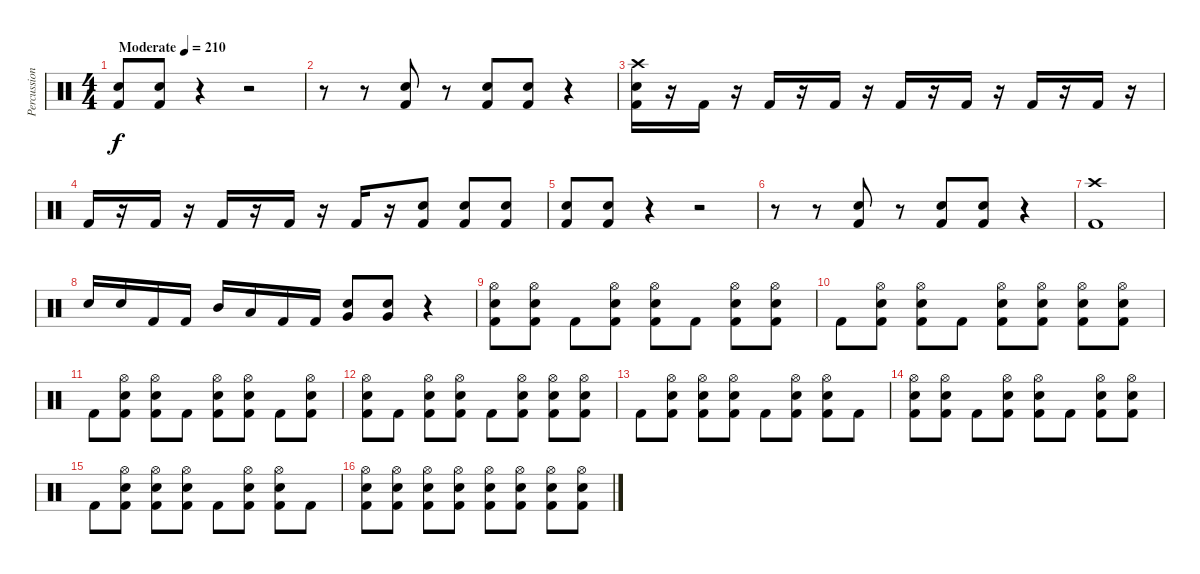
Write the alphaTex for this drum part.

\track ("Percussion" "Percussion") {instrument percussion}
\staff {score}
\articulation defaults
\ts (4 4)
\tempo (210 "Moderate")
\clef neutral
\ks c
("Electric Snare (hit)" "Kick (hit) 2").8{dy f} ("Electric Snare (hit)" "Kick (hit) 2").8 r.4 r.2 |
r.8 r.8 ("Electric Snare (hit)" "Kick (hit) 2").8 r.8 ("Electric Snare (hit)" "Kick (hit) 2").8 ("Electric Snare (hit)" "Kick (hit) 2").8 r.4 |
("Crash high (hit)" "Electric Snare (hit)" "Kick (hit) 2").16 r.16 "Kick (hit) 2".16 r.16 "Kick (hit) 2".16 r.16 "Kick (hit) 2".16 r.16 "Kick (hit) 2".16 r.16 "Kick (hit) 2".16 r.16 "Kick (hit) 2".16 r.16 "Kick (hit) 2".16 r.16 |
"Kick (hit) 2".16 r.16 "Kick (hit) 2".16 r.16 "Kick (hit) 2".16 r.16 "Kick (hit) 2".16 r.16 "Kick (hit) 2".16 r.16 ("Electric Snare (hit)" "Kick (hit) 2").8 ("Electric Snare (hit)" "Kick (hit) 2").8 ("Electric Snare (hit)" "Kick (hit) 2").8 |
("Electric Snare (hit)" "Kick (hit) 2").8 ("Electric Snare (hit)" "Kick (hit) 2").8 r.4 r.2 |
r.8 r.8 ("Electric Snare (hit)" "Kick (hit) 2").8 r.8 ("Electric Snare (hit)" "Kick (hit) 2").8 ("Electric Snare (hit)" "Kick (hit) 2").8 r.4 |
("Crash high (hit)" "Kick (hit) 2").1 |
"Electric Snare (hit)".16 "Electric Snare (hit)".16 "Kick (hit) 2".16 "Kick (hit) 2".16 "Mid Tom (hit)".16 "Low Tom (hit)".16 "Kick (hit) 2".16 "Kick (hit) 2".16 ("Very Low Tom (hit)" "Electric Snare (hit)").8 ("Very Low Tom (hit)" "Electric Snare (hit)").8 r.4 |
("Hi-Hat (open)" "Electric Snare (hit)" "Kick (hit) 2").8 ("Hi-Hat (open)" "Electric Snare (hit)" "Kick (hit) 2").8 "Kick (hit) 2".8 ("Hi-Hat (open)" "Electric Snare (hit)" "Kick (hit) 2").8 ("Hi-Hat (open)" "Electric Snare (hit)" "Kick (hit) 2").8 "Kick (hit) 2".8 ("Hi-Hat (open)" "Electric Snare (hit)" "Kick (hit) 2").8 ("Hi-Hat (open)" "Electric Snare (hit)" "Kick (hit) 2").8 |
"Kick (hit) 2".8 ("Hi-Hat (open)" "Electric Snare (hit)" "Kick (hit) 2").8 ("Hi-Hat (open)" "Electric Snare (hit)" "Kick (hit) 2").8 "Kick (hit) 2".8 ("Hi-Hat (open)" "Electric Snare (hit)" "Kick (hit) 2").8 ("Hi-Hat (open)" "Electric Snare (hit)" "Kick (hit) 2").8 ("Hi-Hat (open)" "Electric Snare (hit)" "Kick (hit) 2").8 ("Hi-Hat (open)" "Electric Snare (hit)" "Kick (hit) 2").8 |
"Kick (hit) 2".8 ("Hi-Hat (open)" "Electric Snare (hit)" "Kick (hit) 2").8 ("Hi-Hat (open)" "Electric Snare (hit)" "Kick (hit) 2").8 "Kick (hit) 2".8 ("Hi-Hat (open)" "Electric Snare (hit)" "Kick (hit) 2").8 ("Hi-Hat (open)" "Electric Snare (hit)" "Kick (hit) 2").8 "Kick (hit) 2".8 ("Hi-Hat (open)" "Electric Snare (hit)" "Kick (hit) 2").8 |
("Hi-Hat (open)" "Electric Snare (hit)" "Kick (hit) 2").8 "Kick (hit) 2".8 ("Hi-Hat (open)" "Electric Snare (hit)" "Kick (hit) 2").8 ("Hi-Hat (open)" "Electric Snare (hit)" "Kick (hit) 2").8 "Kick (hit) 2".8 ("Hi-Hat (open)" "Electric Snare (hit)" "Kick (hit) 2").8 ("Hi-Hat (open)" "Electric Snare (hit)" "Kick (hit) 2").8 ("Hi-Hat (open)" "Electric Snare (hit)" "Kick (hit) 2").8 |
"Kick (hit) 2".8 ("Hi-Hat (open)" "Electric Snare (hit)" "Kick (hit) 2").8 ("Hi-Hat (open)" "Electric Snare (hit)" "Kick (hit) 2").8 ("Hi-Hat (open)" "Electric Snare (hit)" "Kick (hit) 2").8 "Kick (hit) 2".8 ("Hi-Hat (open)" "Electric Snare (hit)" "Kick (hit) 2").8 ("Hi-Hat (open)" "Electric Snare (hit)" "Kick (hit) 2").8 "Kick (hit) 2".8 |
("Hi-Hat (open)" "Electric Snare (hit)" "Kick (hit) 2").8 ("Hi-Hat (open)" "Electric Snare (hit)" "Kick (hit) 2").8 "Kick (hit) 2".8 ("Hi-Hat (open)" "Electric Snare (hit)" "Kick (hit) 2").8 ("Hi-Hat (open)" "Electric Snare (hit)" "Kick (hit) 2").8 "Kick (hit) 2".8 ("Hi-Hat (open)" "Electric Snare (hit)" "Kick (hit) 2").8 ("Hi-Hat (open)" "Electric Snare (hit)" "Kick (hit) 2").8 |
"Kick (hit) 2".8 ("Hi-Hat (open)" "Electric Snare (hit)" "Kick (hit) 2").8 ("Hi-Hat (open)" "Electric Snare (hit)" "Kick (hit) 2").8 ("Hi-Hat (open)" "Electric Snare (hit)" "Kick (hit) 2").8 "Kick (hit) 2".8 ("Hi-Hat (open)" "Electric Snare (hit)" "Kick (hit) 2").8 ("Hi-Hat (open)" "Electric Snare (hit)" "Kick (hit) 2").8 "Kick (hit) 2".8 |
("Hi-Hat (open)" "Electric Snare (hit)" "Kick (hit) 2").8 ("Hi-Hat (open)" "Electric Snare (hit)" "Kick (hit) 2").8 ("Hi-Hat (open)" "Electric Snare (hit)" "Kick (hit) 2").8 ("Hi-Hat (open)" "Electric Snare (hit)" "Kick (hit) 2").8 ("Hi-Hat (open)" "Electric Snare (hit)" "Kick (hit) 2").8 ("Hi-Hat (open)" "Electric Snare (hit)" "Kick (hit) 2").8 ("Hi-Hat (open)" "Electric Snare (hit)" "Kick (hit) 2").8 ("Hi-Hat (open)" "Electric Snare (hit)" "Kick (hit) 2").8
